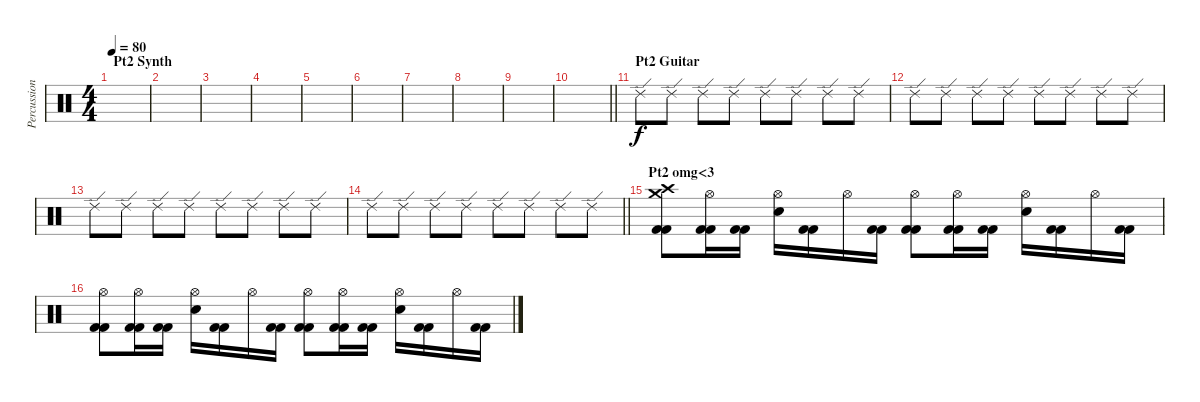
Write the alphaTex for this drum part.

\track ("Percussion" "Percussion") {instrument percussion}
\staff {score}
\articulation defaults
\ts (4 4)
\section ("" "Pt2 Synth")
\tempo 80
\clef neutral
\ks c
|
|
|
|
|
|
|
|
|
\barLineRight lightlight
|
\section ("" "Pt2 Guitar")
"Ride (edge) 2".8 "Ride (edge) 2".8 "Ride (edge) 2".8 "Ride (edge) 2".8 "Ride (edge) 2".8 "Ride (edge) 2".8 "Ride (edge) 2".8 "Ride (edge) 2".8 |
"Ride (edge) 2".8 "Ride (edge) 2".8 "Ride (edge) 2".8 "Ride (edge) 2".8 "Ride (edge) 2".8 "Ride (edge) 2".8 "Ride (edge) 2".8 "Ride (edge) 2".8 |
"Ride (edge) 2".8 "Ride (edge) 2".8 "Ride (edge) 2".8 "Ride (edge) 2".8 "Ride (edge) 2".8 "Ride (edge) 2".8 "Ride (edge) 2".8 "Ride (edge) 2".8 |
\barLineRight lightlight "Ride (edge) 2".8 "Ride (edge) 2".8 "Ride (edge) 2".8 "Ride (edge) 2".8 "Ride (edge) 2".8 "Ride (edge) 2".8 "Ride (edge) 2".8 "Ride (edge) 2".8
|
\section ("" "Pt2 omg<3")
("Crash medium (hit)" "Crash high (hit)" "Kick (hit) 2" "Kick (hit) 2").8 ("Hi-Hat (open)" "Kick (hit) 2" "Kick (hit) 2").16 ("Kick (hit) 2" "Kick (hit) 2").16 ("Hi-Hat (open)" "Electric Snare (hit)").16 ("Kick (hit) 2" "Kick (hit) 2").16 "Hi-Hat (open)".16 ("Kick (hit) 2" "Kick (hit) 2").16 ("Hi-Hat (open)" "Kick (hit) 2" "Kick (hit) 2").8 ("Hi-Hat (open)" "Kick (hit) 2" "Kick (hit) 2").16 ("Kick (hit) 2" "Kick (hit) 2").16 ("Hi-Hat (open)" "Electric Snare (hit)").16 ("Kick (hit) 2" "Kick (hit) 2").16 "Hi-Hat (open)".16 ("Kick (hit) 2" "Kick (hit) 2").16 |
("Hi-Hat (open)" "Kick (hit) 2" "Kick (hit) 2").8 ("Hi-Hat (open)" "Kick (hit) 2" "Kick (hit) 2").16 ("Kick (hit) 2" "Kick (hit) 2").16 ("Hi-Hat (open)" "Electric Snare (hit)").16 ("Kick (hit) 2" "Kick (hit) 2").16 "Hi-Hat (open)".16 ("Kick (hit) 2" "Kick (hit) 2").16 ("Hi-Hat (open)" "Kick (hit) 2" "Kick (hit) 2").8 ("Hi-Hat (open)" "Kick (hit) 2" "Kick (hit) 2").16 ("Kick (hit) 2" "Kick (hit) 2").16 ("Hi-Hat (open)" "Electric Snare (hit)").16 ("Kick (hit) 2" "Kick (hit) 2").16 "Hi-Hat (open)".16 ("Kick (hit) 2" "Kick (hit) 2").16
